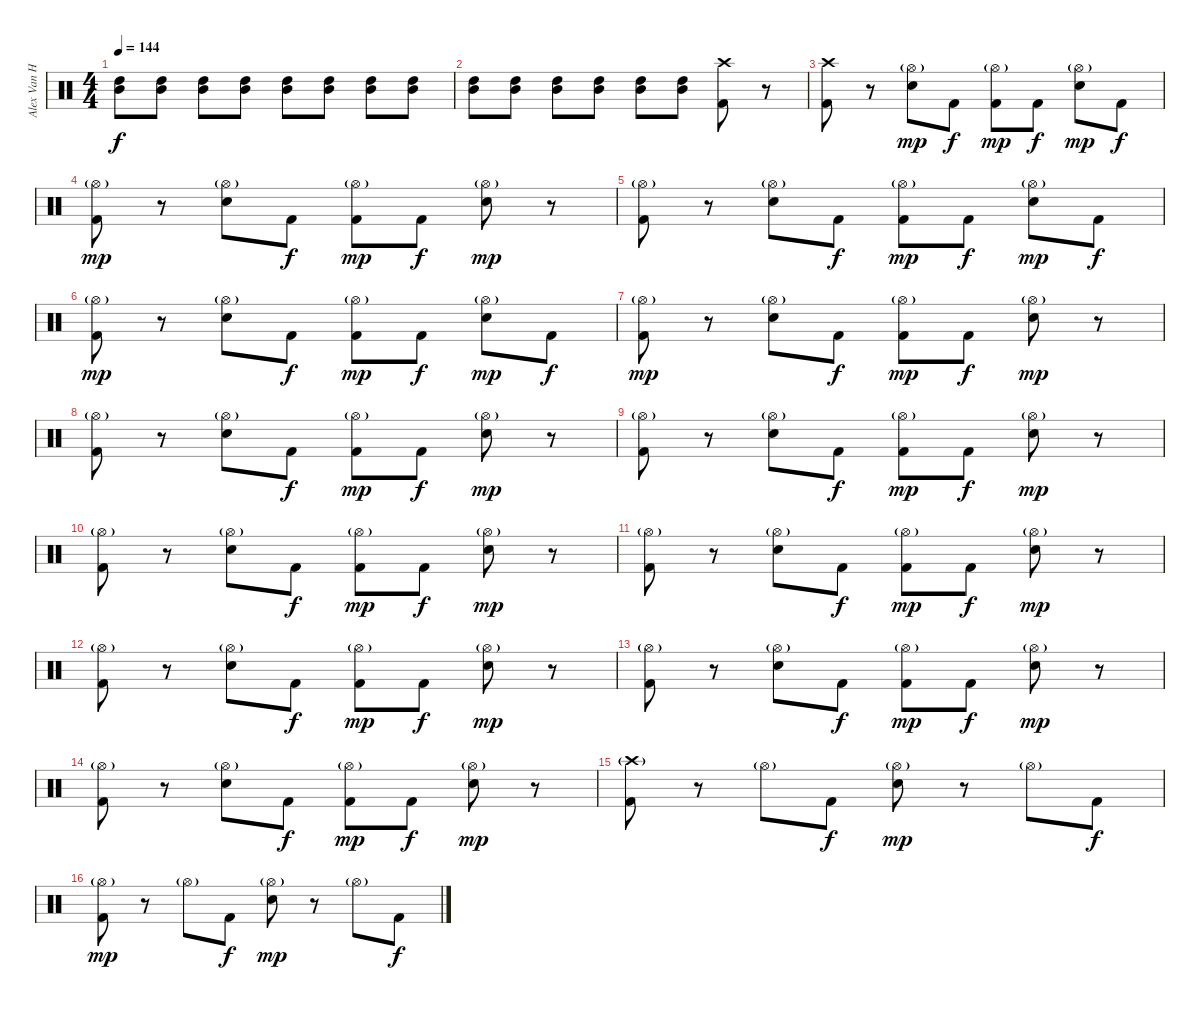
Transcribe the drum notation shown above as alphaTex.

\track ("Alex Van Halen" "Alex Van H") {instrument percussion}
\staff {score}
\articulation defaults
\ts (4 4)
\tempo 144
\clef neutral
\ks c
("High Tom (hit)" "Mid Tom (hit)").8{dy f} ("High Tom (hit)" "Mid Tom (hit)").8 ("High Tom (hit)" "Mid Tom (hit)").8 ("High Tom (hit)" "Mid Tom (hit)").8 ("High Tom (hit)" "Mid Tom (hit)").8 ("High Tom (hit)" "Mid Tom (hit)").8 ("High Tom (hit)" "Mid Tom (hit)").8 ("High Tom (hit)" "Mid Tom (hit)").8 |
("High Tom (hit)" "Mid Tom (hit)").8 ("High Tom (hit)" "Mid Tom (hit)").8 ("High Tom (hit)" "Mid Tom (hit)").8 ("High Tom (hit)" "Mid Tom (hit)").8 ("High Tom (hit)" "Mid Tom (hit)").8 ("High Tom (hit)" "Mid Tom (hit)").8 ("Crash high (hit)" "Kick (hit) 2").8 r.8 |
("Crash high (hit)" "Kick (hit) 2").8 r.8 ("Hi-Hat (open)"{g} "Electric Snare (hit)").8{dy mp} "Kick (hit) 2".8{dy f} ("Hi-Hat (open)"{g} "Kick (hit) 2").8{dy mp} "Kick (hit) 2".8{dy f} ("Hi-Hat (open)"{g} "Electric Snare (hit)").8{dy mp} "Kick (hit) 2".8{dy f} |
("Hi-Hat (open)"{g} "Kick (hit) 2").8{dy mp} r.8 ("Hi-Hat (open)"{g} "Electric Snare (hit)").8 "Kick (hit) 2".8{dy f} ("Hi-Hat (open)"{g} "Kick (hit) 2").8{dy mp} "Kick (hit) 2".8{dy f} ("Hi-Hat (open)"{g} "Electric Snare (hit)").8{dy mp} r.8 |
("Hi-Hat (open)"{g} "Kick (hit) 2").8 r.8 ("Hi-Hat (open)"{g} "Electric Snare (hit)").8 "Kick (hit) 2".8{dy f} ("Hi-Hat (open)"{g} "Kick (hit) 2").8{dy mp} "Kick (hit) 2".8{dy f} ("Hi-Hat (open)"{g} "Electric Snare (hit)").8{dy mp} "Kick (hit) 2".8{dy f} |
("Hi-Hat (open)"{g} "Kick (hit) 2").8{dy mp} r.8 ("Hi-Hat (open)"{g} "Electric Snare (hit)").8 "Kick (hit) 2".8{dy f} ("Hi-Hat (open)"{g} "Kick (hit) 2").8{dy mp} "Kick (hit) 2".8{dy f} ("Hi-Hat (open)"{g} "Electric Snare (hit)").8{dy mp} "Kick (hit) 2".8{dy f} |
("Hi-Hat (open)"{g} "Kick (hit) 2").8{dy mp} r.8 ("Hi-Hat (open)"{g} "Electric Snare (hit)").8 "Kick (hit) 2".8{dy f} ("Hi-Hat (open)"{g} "Kick (hit) 2").8{dy mp} "Kick (hit) 2".8{dy f} ("Hi-Hat (open)"{g} "Electric Snare (hit)").8{dy mp} r.8 |
("Hi-Hat (open)"{g} "Kick (hit) 2").8 r.8 ("Hi-Hat (open)"{g} "Electric Snare (hit)").8 "Kick (hit) 2".8{dy f} ("Hi-Hat (open)"{g} "Kick (hit) 2").8{dy mp} "Kick (hit) 2".8{dy f} ("Hi-Hat (open)"{g} "Electric Snare (hit)").8{dy mp} r.8 |
("Hi-Hat (open)"{g} "Kick (hit) 2").8 r.8 ("Hi-Hat (open)"{g} "Electric Snare (hit)").8 "Kick (hit) 2".8{dy f} ("Hi-Hat (open)"{g} "Kick (hit) 2").8{dy mp} "Kick (hit) 2".8{dy f} ("Hi-Hat (open)"{g} "Electric Snare (hit)").8{dy mp} r.8 |
("Hi-Hat (open)"{g} "Kick (hit) 2").8 r.8 ("Hi-Hat (open)"{g} "Electric Snare (hit)").8 "Kick (hit) 2".8{dy f} ("Hi-Hat (open)"{g} "Kick (hit) 2").8{dy mp} "Kick (hit) 2".8{dy f} ("Hi-Hat (open)"{g} "Electric Snare (hit)").8{dy mp} r.8 |
("Hi-Hat (open)"{g} "Kick (hit) 2").8 r.8 ("Hi-Hat (open)"{g} "Electric Snare (hit)").8 "Kick (hit) 2".8{dy f} ("Hi-Hat (open)"{g} "Kick (hit) 2").8{dy mp} "Kick (hit) 2".8{dy f} ("Hi-Hat (open)"{g} "Electric Snare (hit)").8{dy mp} r.8 |
("Hi-Hat (open)"{g} "Kick (hit) 2").8 r.8 ("Hi-Hat (open)"{g} "Electric Snare (hit)").8 "Kick (hit) 2".8{dy f} ("Hi-Hat (open)"{g} "Kick (hit) 2").8{dy mp} "Kick (hit) 2".8{dy f} ("Hi-Hat (open)"{g} "Electric Snare (hit)").8{dy mp} r.8 |
("Hi-Hat (open)"{g} "Kick (hit) 2").8 r.8 ("Hi-Hat (open)"{g} "Electric Snare (hit)").8 "Kick (hit) 2".8{dy f} ("Hi-Hat (open)"{g} "Kick (hit) 2").8{dy mp} "Kick (hit) 2".8{dy f} ("Hi-Hat (open)"{g} "Electric Snare (hit)").8{dy mp} r.8 |
("Hi-Hat (open)"{g} "Kick (hit) 2").8 r.8 ("Hi-Hat (open)"{g} "Electric Snare (hit)").8 "Kick (hit) 2".8{dy f} ("Hi-Hat (open)"{g} "Kick (hit) 2").8{dy mp} "Kick (hit) 2".8{dy f} ("Hi-Hat (open)"{g} "Electric Snare (hit)").8{dy mp} r.8 |
("Crash high (hit)"{g} "Kick (hit) 2").8 r.8 "Hi-Hat (open)"{g}.8 "Kick (hit) 2".8{dy f} ("Hi-Hat (open)"{g} "Electric Snare (hit)").8{dy mp} r.8 "Hi-Hat (open)"{g}.8 "Kick (hit) 2".8{dy f} |
("Hi-Hat (open)"{g} "Kick (hit) 2").8{dy mp} r.8 "Hi-Hat (open)"{g}.8 "Kick (hit) 2".8{dy f} ("Hi-Hat (open)"{g} "Electric Snare (hit)").8{dy mp} r.8 "Hi-Hat (open)"{g}.8 "Kick (hit) 2".8{dy f}
